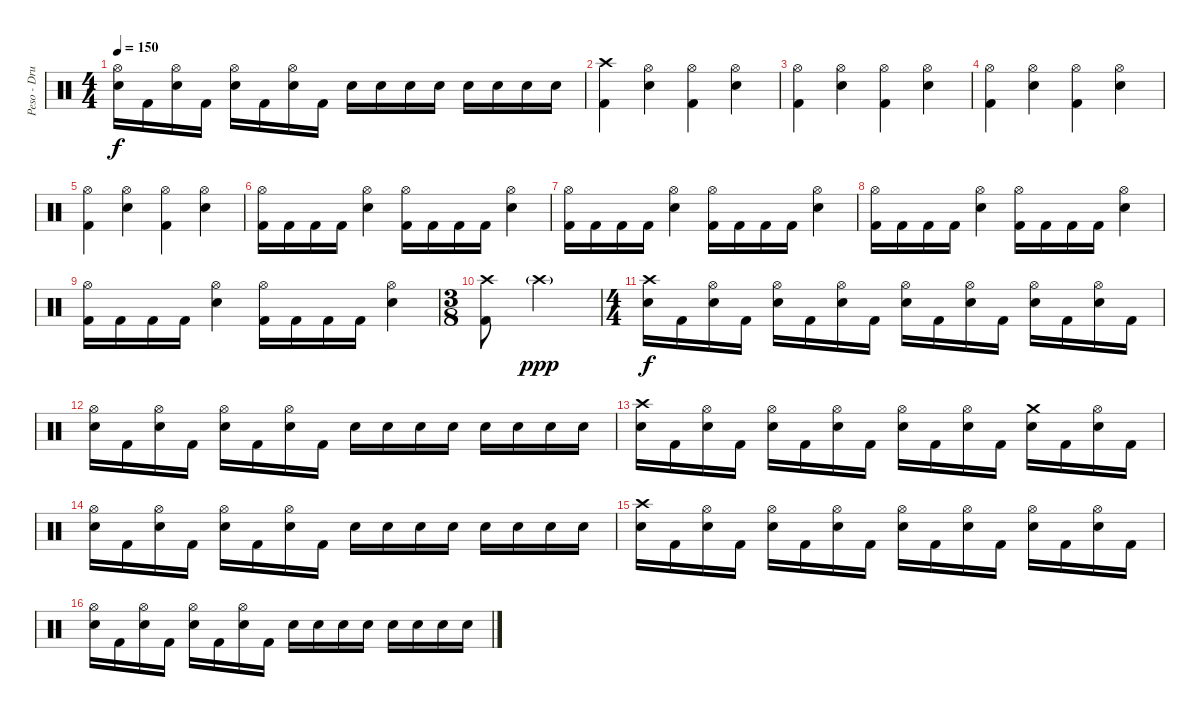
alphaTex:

\track ("Peso - Drums" "Peso - Dru") {instrument percussion}
\staff {score}
\articulation defaults
\ts (4 4)
\tempo 150
\clef neutral
\ks c
("Hi-Hat (open)" "Electric Snare (hit)").16{dy f} "Kick (hit) 2".16 ("Hi-Hat (open)" "Electric Snare (hit)").16 "Kick (hit) 2".16 ("Hi-Hat (open)" "Electric Snare (hit)").16 "Kick (hit) 2".16 ("Hi-Hat (open)" "Electric Snare (hit)").16 "Kick (hit) 2".16 "Electric Snare (hit)".16 "Electric Snare (hit)".16 "Electric Snare (hit)".16 "Electric Snare (hit)".16 "Electric Snare (hit)".16 "Electric Snare (hit)".16 "Electric Snare (hit)".16 "Electric Snare (hit)".16 |
("Crash high (hit)" "Kick (hit) 2").4 ("Hi-Hat (open)" "Electric Snare (hit)").4 ("Hi-Hat (open)" "Kick (hit) 2").4 ("Hi-Hat (open)" "Electric Snare (hit)").4 |
("Hi-Hat (open)" "Kick (hit) 2").4 ("Hi-Hat (open)" "Electric Snare (hit)").4 ("Hi-Hat (open)" "Kick (hit) 2").4 ("Hi-Hat (open)" "Electric Snare (hit)").4 |
("Hi-Hat (open)" "Kick (hit) 2").4 ("Hi-Hat (open)" "Electric Snare (hit)").4 ("Hi-Hat (open)" "Kick (hit) 2").4 ("Hi-Hat (open)" "Electric Snare (hit)").4 |
("Hi-Hat (open)" "Kick (hit) 2").4 ("Hi-Hat (open)" "Electric Snare (hit)").4 ("Hi-Hat (open)" "Kick (hit) 2").4 ("Hi-Hat (open)" "Electric Snare (hit)").4 |
("Hi-Hat (open)" "Kick (hit) 2").16 "Kick (hit) 2".16 "Kick (hit) 2".16 "Kick (hit) 2".16 ("Hi-Hat (open)" "Electric Snare (hit)").4 ("Hi-Hat (open)" "Kick (hit) 2").16 "Kick (hit) 2".16 "Kick (hit) 2".16 "Kick (hit) 2".16 ("Hi-Hat (open)" "Electric Snare (hit)").4 |
("Hi-Hat (open)" "Kick (hit) 2").16 "Kick (hit) 2".16 "Kick (hit) 2".16 "Kick (hit) 2".16 ("Hi-Hat (open)" "Electric Snare (hit)").4 ("Hi-Hat (open)" "Kick (hit) 2").16 "Kick (hit) 2".16 "Kick (hit) 2".16 "Kick (hit) 2".16 ("Hi-Hat (open)" "Electric Snare (hit)").4 |
("Hi-Hat (open)" "Kick (hit) 2").16 "Kick (hit) 2".16 "Kick (hit) 2".16 "Kick (hit) 2".16 ("Hi-Hat (open)" "Electric Snare (hit)").4 ("Hi-Hat (open)" "Kick (hit) 2").16 "Kick (hit) 2".16 "Kick (hit) 2".16 "Kick (hit) 2".16 ("Hi-Hat (open)" "Electric Snare (hit)").4 |
("Hi-Hat (open)" "Kick (hit) 2").16 "Kick (hit) 2".16 "Kick (hit) 2".16 "Kick (hit) 2".16 ("Hi-Hat (open)" "Electric Snare (hit)").4 ("Hi-Hat (open)" "Kick (hit) 2").16 "Kick (hit) 2".16 "Kick (hit) 2".16 "Kick (hit) 2".16 ("Hi-Hat (open)" "Electric Snare (hit)").4 |
\ts (3 8)
("Crash high (hit)" "Kick (hit) 2").8 "Crash high (hit)"{g}.4{dy ppp} |
\ts (4 4)
("Crash high (hit)" "Electric Snare (hit)").16{dy f} "Kick (hit) 2".16 ("Hi-Hat (open)" "Electric Snare (hit)").16 "Kick (hit) 2".16 ("Hi-Hat (open)" "Electric Snare (hit)").16 "Kick (hit) 2".16 ("Hi-Hat (open)" "Electric Snare (hit)").16 "Kick (hit) 2".16 ("Hi-Hat (open)" "Electric Snare (hit)").16 "Kick (hit) 2".16 ("Hi-Hat (open)" "Electric Snare (hit)").16 "Kick (hit) 2".16 ("Hi-Hat (open)" "Electric Snare (hit)").16 "Kick (hit) 2".16 ("Hi-Hat (open)" "Electric Snare (hit)").16 "Kick (hit) 2".16 |
("Hi-Hat (open)" "Electric Snare (hit)").16 "Kick (hit) 2".16 ("Hi-Hat (open)" "Electric Snare (hit)").16 "Kick (hit) 2".16 ("Hi-Hat (open)" "Electric Snare (hit)").16 "Kick (hit) 2".16 ("Hi-Hat (open)" "Electric Snare (hit)").16 "Kick (hit) 2".16 "Electric Snare (hit)".16 "Electric Snare (hit)".16 "Electric Snare (hit)".16 "Electric Snare (hit)".16 "Electric Snare (hit)".16 "Electric Snare (hit)".16 "Electric Snare (hit)".16 "Electric Snare (hit)".16 |
("Crash high (hit)" "Electric Snare (hit)").16 "Kick (hit) 2".16 ("Hi-Hat (open)" "Electric Snare (hit)").16 "Kick (hit) 2".16 ("Hi-Hat (open)" "Electric Snare (hit)").16 "Kick (hit) 2".16 ("Hi-Hat (open)" "Electric Snare (hit)").16 "Kick (hit) 2".16 ("Hi-Hat (open)" "Electric Snare (hit)").16 "Kick (hit) 2".16 ("Hi-Hat (open)" "Electric Snare (hit)").16 "Kick (hit) 2".16 ("Crash medium (hit)" "Electric Snare (hit)").16 "Kick (hit) 2".16 ("Hi-Hat (open)" "Electric Snare (hit)").16 "Kick (hit) 2".16 |
("Hi-Hat (open)" "Electric Snare (hit)").16 "Kick (hit) 2".16 ("Hi-Hat (open)" "Electric Snare (hit)").16 "Kick (hit) 2".16 ("Hi-Hat (open)" "Electric Snare (hit)").16 "Kick (hit) 2".16 ("Hi-Hat (open)" "Electric Snare (hit)").16 "Kick (hit) 2".16 "Electric Snare (hit)".16 "Electric Snare (hit)".16 "Electric Snare (hit)".16 "Electric Snare (hit)".16 "Electric Snare (hit)".16 "Electric Snare (hit)".16 "Electric Snare (hit)".16 "Electric Snare (hit)".16 |
("Crash high (hit)" "Electric Snare (hit)").16 "Kick (hit) 2".16 ("Hi-Hat (open)" "Electric Snare (hit)").16 "Kick (hit) 2".16 ("Hi-Hat (open)" "Electric Snare (hit)").16 "Kick (hit) 2".16 ("Hi-Hat (open)" "Electric Snare (hit)").16 "Kick (hit) 2".16 ("Hi-Hat (open)" "Electric Snare (hit)").16 "Kick (hit) 2".16 ("Hi-Hat (open)" "Electric Snare (hit)").16 "Kick (hit) 2".16 ("Hi-Hat (open)" "Electric Snare (hit)").16 "Kick (hit) 2".16 ("Hi-Hat (open)" "Electric Snare (hit)").16 "Kick (hit) 2".16 |
("Hi-Hat (open)" "Electric Snare (hit)").16 "Kick (hit) 2".16 ("Hi-Hat (open)" "Electric Snare (hit)").16 "Kick (hit) 2".16 ("Hi-Hat (open)" "Electric Snare (hit)").16 "Kick (hit) 2".16 ("Hi-Hat (open)" "Electric Snare (hit)").16 "Kick (hit) 2".16 "Electric Snare (hit)".16 "Electric Snare (hit)".16 "Electric Snare (hit)".16 "Electric Snare (hit)".16 "Electric Snare (hit)".16 "Electric Snare (hit)".16 "Electric Snare (hit)".16 "Electric Snare (hit)".16
